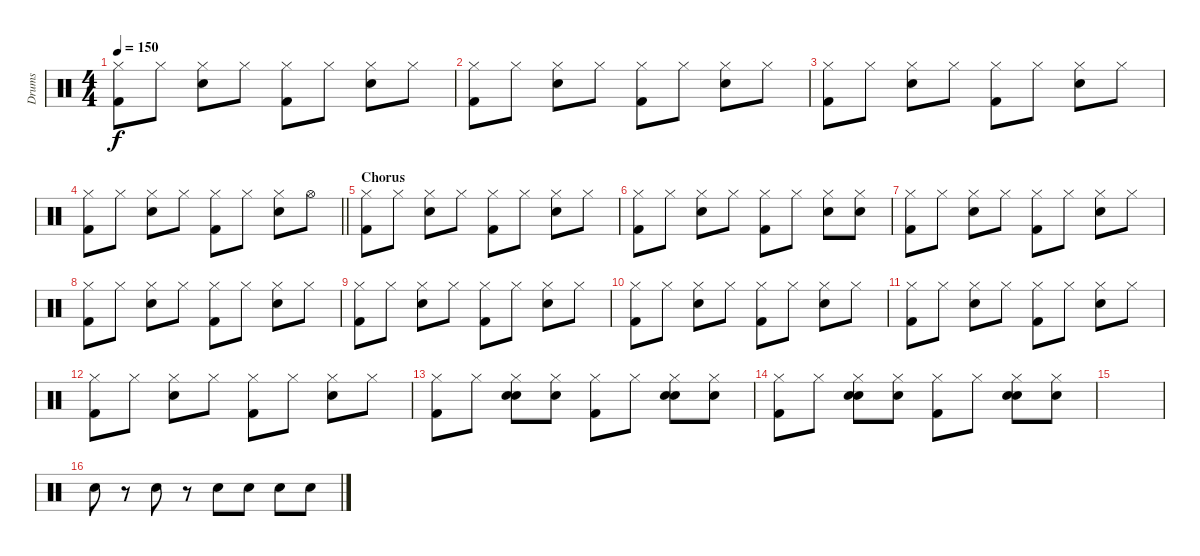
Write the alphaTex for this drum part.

\track ("Drums" "Drums") {instrument percussion}
\staff {score}
\articulation defaults
\ts (4 4)
\tempo 150
\clef neutral
\ks c
("Hi-Hat (closed)" "Kick (hit) 2").8{dy f} "Hi-Hat (closed)".8 ("Hi-Hat (closed)" "Snare (hit) 2").8 "Hi-Hat (closed)".8 ("Hi-Hat (closed)" "Kick (hit) 2").8 "Hi-Hat (closed)".8 ("Hi-Hat (closed)" "Snare (hit) 2").8 "Hi-Hat (closed)".8 |
("Hi-Hat (closed)" "Kick (hit) 2").8 "Hi-Hat (closed)".8 ("Hi-Hat (closed)" "Snare (hit) 2").8 "Hi-Hat (closed)".8 ("Hi-Hat (closed)" "Kick (hit) 2").8 "Hi-Hat (closed)".8 ("Hi-Hat (closed)" "Snare (hit) 2").8 "Hi-Hat (closed)".8 |
("Hi-Hat (closed)" "Kick (hit) 2").8 "Hi-Hat (closed)".8 ("Hi-Hat (closed)" "Snare (hit) 2").8 "Hi-Hat (closed)".8 ("Hi-Hat (closed)" "Kick (hit) 2").8 "Hi-Hat (closed)".8 ("Hi-Hat (closed)" "Snare (hit) 2").8 "Hi-Hat (closed)".8 |
\barLineRight lightlight
("Hi-Hat (closed)" "Kick (hit) 2").8 "Hi-Hat (closed)".8 ("Hi-Hat (closed)" "Snare (hit) 2").8 "Hi-Hat (closed)".8 ("Hi-Hat (closed)" "Kick (hit) 2").8 "Hi-Hat (closed)".8 ("Hi-Hat (closed)" "Snare (hit) 2").8 "Hi-Hat (open)".8 |
\section ("" "Chorus")
("Hi-Hat (closed)" "Kick (hit) 2").8 "Hi-Hat (closed)".8 ("Hi-Hat (closed)" "Snare (hit) 2").8 "Hi-Hat (closed)".8 ("Hi-Hat (closed)" "Kick (hit) 2").8 "Hi-Hat (closed)".8 ("Hi-Hat (closed)" "Snare (hit) 2").8 "Hi-Hat (closed)".8 |
("Hi-Hat (closed)" "Kick (hit) 2").8 "Hi-Hat (closed)".8 ("Hi-Hat (closed)" "Snare (hit) 2").8 "Hi-Hat (closed)".8 ("Hi-Hat (closed)" "Kick (hit) 2").8 "Hi-Hat (closed)".8 ("Hi-Hat (closed)" "Snare (hit) 2").8 ("Hi-Hat (closed)" "Snare (hit) 2").8 |
("Hi-Hat (closed)" "Kick (hit) 2").8 "Hi-Hat (closed)".8 ("Hi-Hat (closed)" "Snare (hit) 2").8 "Hi-Hat (closed)".8 ("Hi-Hat (closed)" "Kick (hit) 2").8 "Hi-Hat (closed)".8 ("Hi-Hat (closed)" "Snare (hit) 2").8 "Hi-Hat (closed)".8 |
("Hi-Hat (closed)" "Kick (hit) 2").8 "Hi-Hat (closed)".8 ("Hi-Hat (closed)" "Snare (hit) 2").8 "Hi-Hat (closed)".8 ("Hi-Hat (closed)" "Kick (hit) 2").8 "Hi-Hat (closed)".8 ("Hi-Hat (closed)" "Snare (hit) 2").8 "Hi-Hat (closed)".8 |
("Hi-Hat (closed)" "Kick (hit) 2").8 "Hi-Hat (closed)".8 ("Hi-Hat (closed)" "Snare (hit) 2").8 "Hi-Hat (closed)".8 ("Hi-Hat (closed)" "Kick (hit) 2").8 "Hi-Hat (closed)".8 ("Hi-Hat (closed)" "Snare (hit) 2").8 "Hi-Hat (closed)".8 |
("Hi-Hat (closed)" "Kick (hit) 2").8 "Hi-Hat (closed)".8 ("Hi-Hat (closed)" "Snare (hit) 2").8 "Hi-Hat (closed)".8 ("Hi-Hat (closed)" "Kick (hit) 2").8 "Hi-Hat (closed)".8 ("Hi-Hat (closed)" "Snare (hit) 2").8 "Hi-Hat (closed)".8 |
("Hi-Hat (closed)" "Kick (hit) 2").8 "Hi-Hat (closed)".8 ("Hi-Hat (closed)" "Snare (hit) 2").8 "Hi-Hat (closed)".8 ("Hi-Hat (closed)" "Kick (hit) 2").8 "Hi-Hat (closed)".8 ("Hi-Hat (closed)" "Snare (hit) 2").8 "Hi-Hat (closed)".8 |
("Hi-Hat (closed)" "Kick (hit) 2").8 "Hi-Hat (closed)".8 ("Hi-Hat (closed)" "Snare (hit) 2").8 "Hi-Hat (closed)".8 ("Hi-Hat (closed)" "Kick (hit) 2").8 "Hi-Hat (closed)".8 ("Hi-Hat (closed)" "Snare (hit) 2").8 "Hi-Hat (closed)".8 |
("Hi-Hat (closed)" "Kick (hit) 2").8 "Hi-Hat (closed)".8 ("Hi-Hat (closed)" "Hand Clap (hit)" "Snare (hit) 2").8 ("Hi-Hat (closed)" "Hand Clap (hit)").8 ("Hi-Hat (closed)" "Kick (hit) 2").8 "Hi-Hat (closed)".8 ("Hi-Hat (closed)" "Hand Clap (hit)" "Snare (hit) 2").8 ("Hi-Hat (closed)" "Hand Clap (hit)").8 |
("Hi-Hat (closed)" "Kick (hit) 2").8 "Hi-Hat (closed)".8 ("Hi-Hat (closed)" "Hand Clap (hit)" "Snare (hit) 2").8 ("Hi-Hat (closed)" "Hand Clap (hit)").8 ("Hi-Hat (closed)" "Kick (hit) 2").8 "Hi-Hat (closed)".8 ("Hi-Hat (closed)" "Hand Clap (hit)" "Snare (hit) 2").8 ("Hi-Hat (closed)" "Hand Clap (hit)").8 |
|
"Snare (hit) 2".8 r.8 "Snare (hit) 2".8 r.8 "Snare (hit) 2".8 "Snare (hit) 2".8 "Snare (hit) 2".8 "Snare (hit) 2".8
